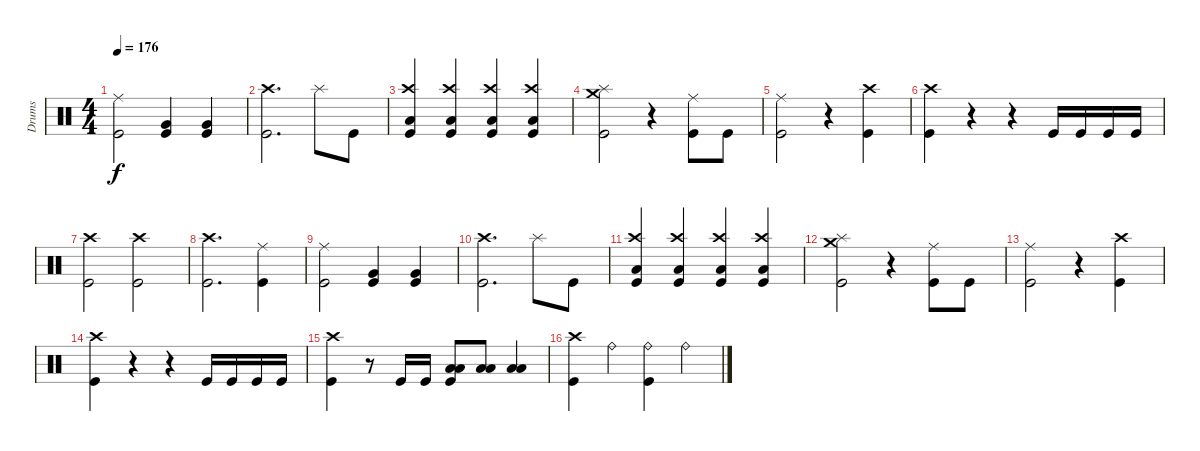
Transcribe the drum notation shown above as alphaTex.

\track ("Drums" "Drums") {instrument percussion}
\staff {score}
\articulation defaults
\ts (4 4)
\tempo 176
\clef neutral
\ks c
("Kick (hit)" "Ride (middle)").2{dy f} ("Kick (hit)" "Very Low Tom (hit)").4 ("Kick (hit)" "Very Low Tom (hit)").4 |
("Crash high (hit)" "Kick (hit)").2{d} "Splash (hit)".8 "Kick (hit)".8 |
("Kick (hit)" "Crash high (hit)" "Low Tom (hit)").4 ("Kick (hit)" "Crash high (hit)" "Low Tom (hit)").4 ("Kick (hit)" "Crash high (hit)" "Low Tom (hit)").4 ("Kick (hit)" "Crash high (hit)" "Low Tom (hit)").4 |
("Splash (hit)" "Kick (hit)" "Crash medium (hit)").2 r.4 ("Kick (hit)" "Ride (middle)").8 "Kick (hit)".8 |
("Kick (hit)" "Ride (middle)").2 r.4 ("Kick (hit)" "Crash high (hit)").4 |
("Kick (hit)" "Crash high (hit)").4 r.4 r.4 "Kick (hit)".16 "Kick (hit)".16 "Kick (hit)".16 "Kick (hit)".16 |
("Kick (hit)" "Crash high (hit)").2 ("Kick (hit)" "Crash high (hit)").2 |
("Kick (hit)" "Crash high (hit)").2{d} ("Kick (hit)" "Ride (middle)").4 |
("Kick (hit)" "Ride (middle)").2 ("Kick (hit)" "Very Low Tom (hit)").4 ("Kick (hit)" "Very Low Tom (hit)").4 |
("Crash high (hit)" "Kick (hit)").2{d} "Splash (hit)".8 "Kick (hit)".8 |
("Kick (hit)" "Crash high (hit)" "Low Tom (hit)").4 ("Kick (hit)" "Crash high (hit)" "Low Tom (hit)").4 ("Kick (hit)" "Crash high (hit)" "Low Tom (hit)").4 ("Kick (hit)" "Crash high (hit)" "Low Tom (hit)").4 |
("Splash (hit)" "Kick (hit)" "Crash medium (hit)").2 r.4 ("Kick (hit)" "Ride (middle)").8 "Kick (hit)".8 |
("Kick (hit)" "Ride (middle)").2 r.4 ("Kick (hit)" "Crash high (hit)").4 |
("Kick (hit)" "Crash high (hit)").4 r.4 r.4 "Kick (hit)".16 "Kick (hit)".16 "Kick (hit)".16 "Kick (hit)".16 |
("Crash high (hit)" "Kick (hit)").4 r.8 "Kick (hit)".16 "Kick (hit)".16 ("Kick (hit)" "Low Floor Tom (hit)" "Low Tom (hit)").8 ("Low Floor Tom (hit)" "Low Tom (hit)").8 ("Low Tom (hit)" "Low Floor Tom (hit)").4 |
("Crash high (hit)" "Kick (hit)").4 "Ride (bell)".4 ("Ride (bell)" "Kick (hit)").4 "Ride (bell)".4
